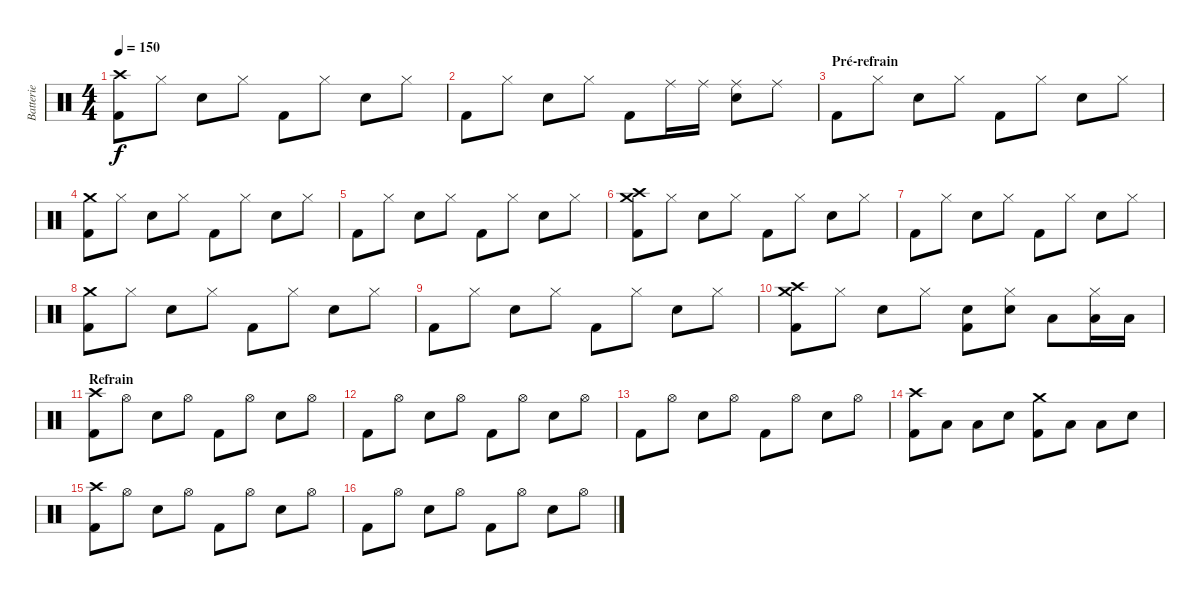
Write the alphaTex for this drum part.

\track ("Batterie" "Batterie") {instrument percussion}
\staff {score}
\articulation defaults
\ts (4 4)
\tempo 150
\clef neutral
\ks c
("Crash high (hit)" "Kick (hit) 2").8{dy f} "Hi-Hat (closed)".8 "Electric Snare (hit)".8 "Hi-Hat (closed)".8 "Kick (hit) 2".8 "Hi-Hat (closed)".8 "Electric Snare (hit)".8 "Hi-Hat (closed)".8 |
"Kick (hit) 2".8 "Hi-Hat (closed)".8 "Electric Snare (hit)".8 "Hi-Hat (closed)".8 "Kick (hit) 2".8 "Ride (middle)".16 "Ride (middle)".16 ("Ride (middle)" "Electric Snare (hit)").8 "Ride (middle)".8 |
\section ("" "Pré-refrain")
"Kick (hit) 2".8 "Hi-Hat (closed)".8 "Electric Snare (hit)".8 "Hi-Hat (closed)".8 "Kick (hit) 2".8 "Hi-Hat (closed)".8 "Electric Snare (hit)".8 "Hi-Hat (closed)".8 |
("Crash medium (hit)" "Kick (hit) 2").8 "Hi-Hat (closed)".8 "Electric Snare (hit)".8 "Hi-Hat (closed)".8 "Kick (hit) 2".8 "Hi-Hat (closed)".8 "Electric Snare (hit)".8 "Hi-Hat (closed)".8 |
"Kick (hit) 2".8 "Hi-Hat (closed)".8 "Electric Snare (hit)".8 "Hi-Hat (closed)".8 "Kick (hit) 2".8 "Hi-Hat (closed)".8 "Electric Snare (hit)".8 "Hi-Hat (closed)".8 |
("Crash high (hit)" "Crash medium (hit)" "Kick (hit) 2").8 "Hi-Hat (closed)".8 "Electric Snare (hit)".8 "Hi-Hat (closed)".8 "Kick (hit) 2".8 "Hi-Hat (closed)".8 "Electric Snare (hit)".8 "Hi-Hat (closed)".8 |
"Kick (hit) 2".8 "Hi-Hat (closed)".8 "Electric Snare (hit)".8 "Hi-Hat (closed)".8 "Kick (hit) 2".8 "Hi-Hat (closed)".8 "Electric Snare (hit)".8 "Hi-Hat (closed)".8 |
("Crash medium (hit)" "Kick (hit) 2").8 "Hi-Hat (closed)".8 "Electric Snare (hit)".8 "Hi-Hat (closed)".8 "Kick (hit) 2".8 "Hi-Hat (closed)".8 "Electric Snare (hit)".8 "Hi-Hat (closed)".8 |
"Kick (hit) 2".8 "Hi-Hat (closed)".8 "Electric Snare (hit)".8 "Hi-Hat (closed)".8 "Kick (hit) 2".8 "Hi-Hat (closed)".8 "Electric Snare (hit)".8 "Hi-Hat (closed)".8 |
("Crash high (hit)" "Crash medium (hit)" "Kick (hit) 2").8 "Hi-Hat (closed)".8 "Electric Snare (hit)".8 "Hi-Hat (closed)".8 ("Electric Snare (hit)" "Kick (hit) 2").8 ("Hi-Hat (closed)" "Electric Snare (hit)").8 "Low Tom (hit)".8 ("Hi-Hat (closed)" "Low Floor Tom (hit)").16 "Low Floor Tom (hit)".16 |
\section ("" "Refrain")
("Crash high (hit)" "Kick (hit) 2").8 "Hi-Hat (open)".8 "Electric Snare (hit)".8 "Hi-Hat (open)".8 "Kick (hit) 2".8 "Hi-Hat (open)".8 "Electric Snare (hit)".8 "Hi-Hat (open)".8 |
"Kick (hit) 2".8 "Hi-Hat (open)".8 "Electric Snare (hit)".8 "Hi-Hat (open)".8 "Kick (hit) 2".8 "Hi-Hat (open)".8 "Electric Snare (hit)".8 "Hi-Hat (open)".8 |
"Kick (hit) 2".8 "Hi-Hat (open)".8 "Electric Snare (hit)".8 "Hi-Hat (open)".8 "Kick (hit) 2".8 "Hi-Hat (open)".8 "Electric Snare (hit)".8 "Hi-Hat (open)".8 |
("Crash high (hit)" "Kick (hit) 2").8 "Low Floor Tom (hit)".8 "Low Tom (hit)".8 "Electric Snare (hit)".8 ("Crash medium (hit)" "Kick (hit) 2").8 "Low Floor Tom (hit)".8 "Low Tom (hit)".8 "Electric Snare (hit)".8 |
("Crash high (hit)" "Kick (hit) 2").8 "Hi-Hat (open)".8 "Electric Snare (hit)".8 "Hi-Hat (open)".8 "Kick (hit) 2".8 "Hi-Hat (open)".8 "Electric Snare (hit)".8 "Hi-Hat (open)".8 |
"Kick (hit) 2".8 "Hi-Hat (open)".8 "Electric Snare (hit)".8 "Hi-Hat (open)".8 "Kick (hit) 2".8 "Hi-Hat (open)".8 "Electric Snare (hit)".8 "Hi-Hat (open)".8
